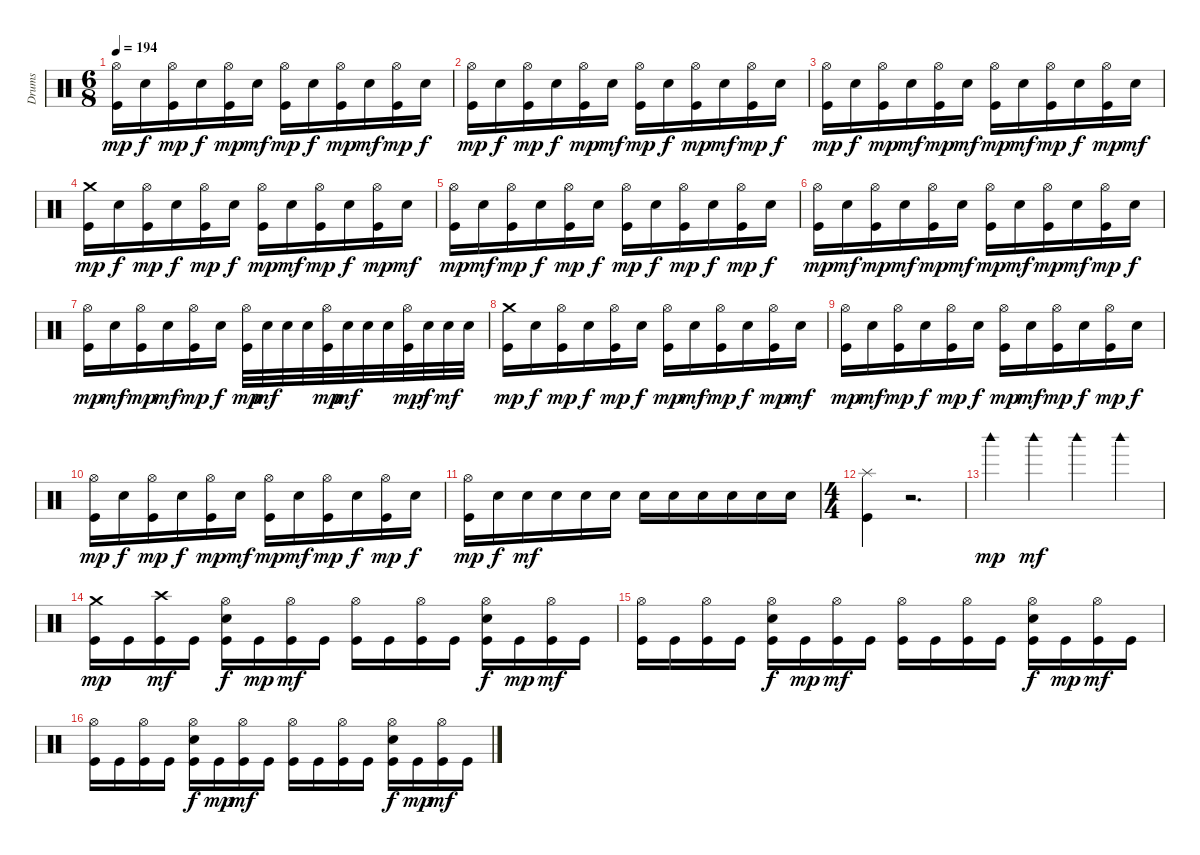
\track ("Drums" "Drums") {instrument percussion}
\staff {score}
\articulation defaults
\ts (6 8)
\tempo 194
\clef neutral
\ks c
("Hi-Hat (open)" "Kick (hit)").16{dy mp} "Snare (hit) 2".16{dy f} ("Hi-Hat (open)" "Kick (hit)").16{dy mp} "Snare (hit) 2".16{dy f} ("Hi-Hat (open)" "Kick (hit)").16{dy mp} "Snare (hit) 2".16{dy mf} ("Hi-Hat (open)" "Kick (hit)").16{dy mp} "Snare (hit) 2".16{dy f} ("Hi-Hat (open)" "Kick (hit)").16{dy mp} "Snare (hit) 2".16{dy mf} ("Hi-Hat (open)" "Kick (hit)").16{dy mp} "Snare (hit) 2".16{dy f} |
("Hi-Hat (open)" "Kick (hit)").16{dy mp} "Snare (hit) 2".16{dy f} ("Hi-Hat (open)" "Kick (hit)").16{dy mp} "Snare (hit) 2".16{dy f} ("Hi-Hat (open)" "Kick (hit)").16{dy mp} "Snare (hit) 2".16{dy mf} ("Hi-Hat (open)" "Kick (hit)").16{dy mp} "Snare (hit) 2".16{dy f} ("Hi-Hat (open)" "Kick (hit)").16{dy mp} "Snare (hit) 2".16{dy mf} ("Hi-Hat (open)" "Kick (hit)").16{dy mp} "Snare (hit) 2".16{dy f} |
("Hi-Hat (open)" "Kick (hit)").16{dy mp} "Snare (hit) 2".16{dy f} ("Hi-Hat (open)" "Kick (hit)").16{dy mp} "Snare (hit) 2".16{dy mf} ("Hi-Hat (open)" "Kick (hit)").16{dy mp} "Snare (hit) 2".16{dy mf} ("Hi-Hat (open)" "Kick (hit)").16{dy mp} "Snare (hit) 2".16{dy mf} ("Hi-Hat (open)" "Kick (hit)").16{dy mp} "Snare (hit) 2".16{dy f} ("Hi-Hat (open)" "Kick (hit)").16{dy mp} "Snare (hit) 2".16{dy mf} |
("Crash medium (hit)" "Kick (hit)").16{dy mp} "Snare (hit) 2".16{dy f} ("Hi-Hat (open)" "Kick (hit)").16{dy mp} "Snare (hit) 2".16{dy f} ("Hi-Hat (open)" "Kick (hit)").16{dy mp} "Snare (hit) 2".16{dy f} ("Hi-Hat (open)" "Kick (hit)").16{dy mp} "Snare (hit) 2".16{dy mf} ("Hi-Hat (open)" "Kick (hit)").16{dy mp} "Snare (hit) 2".16{dy f} ("Hi-Hat (open)" "Kick (hit)").16{dy mp} "Snare (hit) 2".16{dy mf} |
("Hi-Hat (open)" "Kick (hit)").16{dy mp} "Snare (hit) 2".16{dy mf} ("Hi-Hat (open)" "Kick (hit)").16{dy mp} "Snare (hit) 2".16{dy f} ("Hi-Hat (open)" "Kick (hit)").16{dy mp} "Snare (hit) 2".16{dy f} ("Hi-Hat (open)" "Kick (hit)").16{dy mp} "Snare (hit) 2".16{dy f} ("Hi-Hat (open)" "Kick (hit)").16{dy mp} "Snare (hit) 2".16{dy f} ("Hi-Hat (open)" "Kick (hit)").16{dy mp} "Snare (hit) 2".16{dy f} |
("Hi-Hat (open)" "Kick (hit)").16{dy mp} "Snare (hit) 2".16{dy mf} ("Hi-Hat (open)" "Kick (hit)").16{dy mp} "Snare (hit) 2".16{dy mf} ("Hi-Hat (open)" "Kick (hit)").16{dy mp} "Snare (hit) 2".16{dy mf} ("Hi-Hat (open)" "Kick (hit)").16{dy mp} "Snare (hit) 2".16{dy mf} ("Hi-Hat (open)" "Kick (hit)").16{dy mp} "Snare (hit) 2".16{dy mf} ("Hi-Hat (open)" "Kick (hit)").16{dy mp} "Snare (hit) 2".16{dy f} |
("Hi-Hat (open)" "Kick (hit)").16{dy mp} "Snare (hit) 2".16{dy mf} ("Hi-Hat (open)" "Kick (hit)").16{dy mp} "Snare (hit) 2".16{dy mf} ("Hi-Hat (open)" "Kick (hit)").16{dy mp} "Snare (hit) 2".16{dy f} ("Hi-Hat (open)" "Kick (hit)").32{dy mp} "Snare (hit) 2".32{dy mf} "Snare (hit) 2".32 "Snare (hit) 2".32 ("Hi-Hat (open)" "Kick (hit)").32{dy mp} "Snare (hit) 2".32{dy mf} "Snare (hit) 2".32 "Snare (hit) 2".32 ("Hi-Hat (open)" "Kick (hit)").32{dy mp} "Snare (hit) 2".32{dy f} "Snare (hit) 2".32{dy mf} "Snare (hit) 2".32 |
("Crash medium (hit)" "Kick (hit)").16{dy mp} "Snare (hit) 2".16{dy f} ("Hi-Hat (open)" "Kick (hit)").16{dy mp} "Snare (hit) 2".16{dy f} ("Hi-Hat (open)" "Kick (hit)").16{dy mp} "Snare (hit) 2".16{dy f} ("Hi-Hat (open)" "Kick (hit)").16{dy mp} "Snare (hit) 2".16{dy mf} ("Hi-Hat (open)" "Kick (hit)").16{dy mp} "Snare (hit) 2".16{dy f} ("Hi-Hat (open)" "Kick (hit)").16{dy mp} "Snare (hit) 2".16{dy mf} |
("Hi-Hat (open)" "Kick (hit)").16{dy mp} "Snare (hit) 2".16{dy mf} ("Hi-Hat (open)" "Kick (hit)").16{dy mp} "Snare (hit) 2".16{dy f} ("Hi-Hat (open)" "Kick (hit)").16{dy mp} "Snare (hit) 2".16{dy f} ("Hi-Hat (open)" "Kick (hit)").16{dy mp} "Snare (hit) 2".16{dy mf} ("Hi-Hat (open)" "Kick (hit)").16{dy mp} "Snare (hit) 2".16{dy f} ("Hi-Hat (open)" "Kick (hit)").16{dy mp} "Snare (hit) 2".16{dy f} |
("Hi-Hat (open)" "Kick (hit)").16{dy mp} "Snare (hit) 2".16{dy f} ("Hi-Hat (open)" "Kick (hit)").16{dy mp} "Snare (hit) 2".16{dy f} ("Hi-Hat (open)" "Kick (hit)").16{dy mp} "Snare (hit) 2".16{dy mf} ("Hi-Hat (open)" "Kick (hit)").16{dy mp} "Snare (hit) 2".16{dy mf} ("Hi-Hat (open)" "Kick (hit)").16{dy mp} "Snare (hit) 2".16{dy f} ("Hi-Hat (open)" "Kick (hit)").16{dy mp} "Snare (hit) 2".16{dy f} |
("Hi-Hat (open)" "Kick (hit)").16{dy mp} "Snare (hit) 2".16{dy f} "Snare (hit) 2".16{dy mf} "Snare (hit) 2".16 "Snare (hit) 2".16 "Snare (hit) 2".16 "Snare (hit) 2".16 "Snare (hit) 2".16 "Snare (hit) 2".16 "Snare (hit) 2".16 "Snare (hit) 2".16 "Snare (hit) 2".16 |
\ts (4 4)
("Kick (hit)" "Splash (hit)").4 r.2{d} |
"Woodblock high (hit)".4{dy mp} "Woodblock high (hit)".4{dy mf} "Woodblock high (hit)".4 "Woodblock high (hit)".4 |
("Crash medium (hit)" "Kick (hit)").16{dy mp} "Kick (hit)".16 ("Crash high (hit)" "Kick (hit)").16{dy mf} "Kick (hit)".16 ("Hi-Hat (open)" "Kick (hit)" "Snare (hit) 2").16{dy f} "Kick (hit)".16{dy mp} ("Hi-Hat (open)" "Kick (hit)").16{dy mf} "Kick (hit)".16 ("Hi-Hat (open)" "Kick (hit)").16 "Kick (hit)".16 ("Hi-Hat (open)" "Kick (hit)").16 "Kick (hit)".16 ("Hi-Hat (open)" "Kick (hit)" "Snare (hit) 2").16{dy f} "Kick (hit)".16{dy mp} ("Hi-Hat (open)" "Kick (hit)").16{dy mf} "Kick (hit)".16 |
("Hi-Hat (open)" "Kick (hit)").16 "Kick (hit)".16 ("Hi-Hat (open)" "Kick (hit)").16 "Kick (hit)".16 ("Hi-Hat (open)" "Kick (hit)" "Snare (hit) 2").16{dy f} "Kick (hit)".16{dy mp} ("Hi-Hat (open)" "Kick (hit)").16{dy mf} "Kick (hit)".16 ("Hi-Hat (open)" "Kick (hit)").16 "Kick (hit)".16 ("Hi-Hat (open)" "Kick (hit)").16 "Kick (hit)".16 ("Hi-Hat (open)" "Kick (hit)" "Snare (hit) 2").16{dy f} "Kick (hit)".16{dy mp} ("Hi-Hat (open)" "Kick (hit)").16{dy mf} "Kick (hit)".16 |
("Hi-Hat (open)" "Kick (hit)").16 "Kick (hit)".16 ("Hi-Hat (open)" "Kick (hit)").16 "Kick (hit)".16 ("Hi-Hat (open)" "Kick (hit)" "Snare (hit) 2").16{dy f} "Kick (hit)".16{dy mp} ("Hi-Hat (open)" "Kick (hit)").16{dy mf} "Kick (hit)".16 ("Hi-Hat (open)" "Kick (hit)").16 "Kick (hit)".16 ("Hi-Hat (open)" "Kick (hit)").16 "Kick (hit)".16 ("Hi-Hat (open)" "Kick (hit)" "Snare (hit) 2").16{dy f} "Kick (hit)".16{dy mp} ("Hi-Hat (open)" "Kick (hit)").16{dy mf} "Kick (hit)".16
